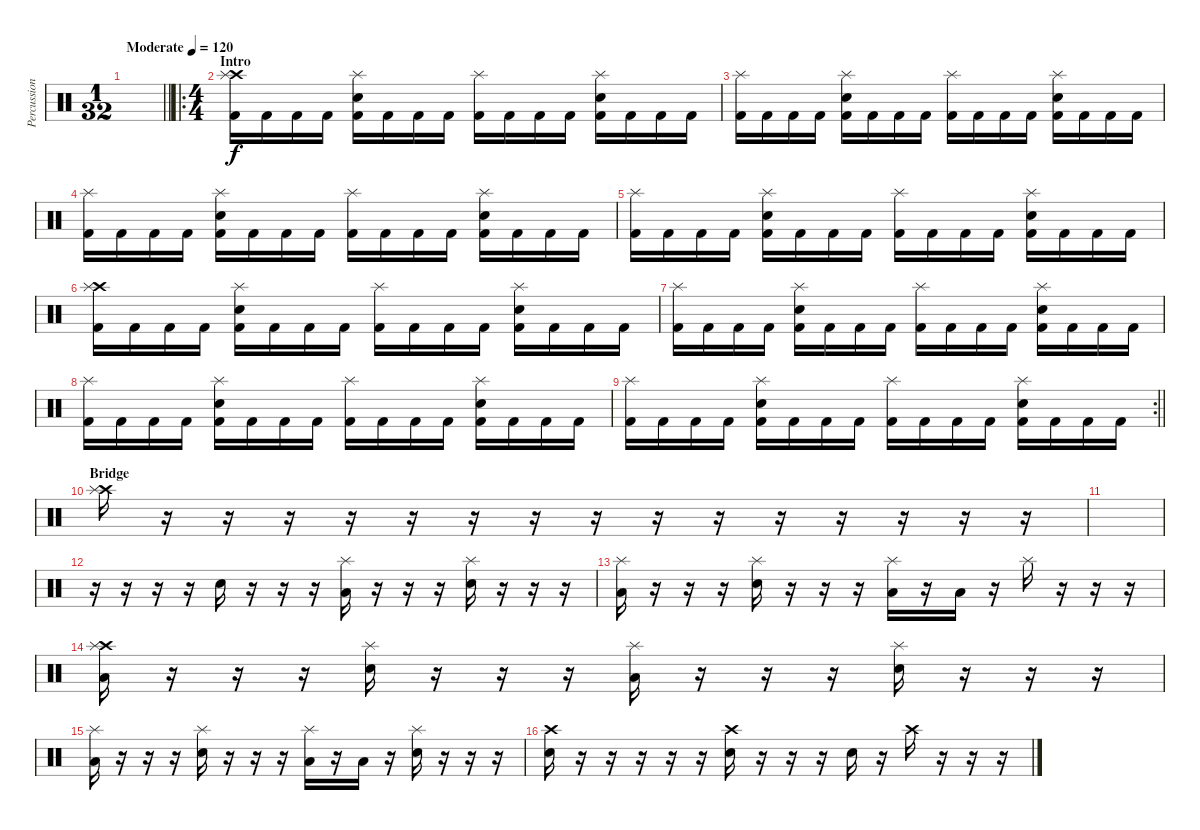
\track ("Percussion" "Percussion") {instrument percussion}
\staff {score}
\articulation defaults
\ts (1 32)
\tempo (120 "Moderate")
\clef neutral
\barLineRight lightlight
\ks c
|
\ro
\ts (4 4)
\section ("" "Intro")
("Crash high (hit)" "Splash (hit)" "Kick (hit) 2").16 "Kick (hit) 2".16 "Kick (hit) 2".16 "Kick (hit) 2".16 ("Splash (hit)" "Electric Snare (hit)" "Kick (hit) 2").16 "Kick (hit) 2".16 "Kick (hit) 2".16 "Kick (hit) 2".16 ("Splash (hit)" "Kick (hit) 2").16 "Kick (hit) 2".16 "Kick (hit) 2".16 "Kick (hit) 2".16 ("Splash (hit)" "Electric Snare (hit)" "Kick (hit) 2").16 "Kick (hit) 2".16 "Kick (hit) 2".16 "Kick (hit) 2".16 |
("Splash (hit)" "Kick (hit) 2").16 "Kick (hit) 2".16 "Kick (hit) 2".16 "Kick (hit) 2".16 ("Splash (hit)" "Electric Snare (hit)" "Kick (hit) 2").16 "Kick (hit) 2".16 "Kick (hit) 2".16 "Kick (hit) 2".16 ("Splash (hit)" "Kick (hit) 2").16 "Kick (hit) 2".16 "Kick (hit) 2".16 "Kick (hit) 2".16 ("Splash (hit)" "Electric Snare (hit)" "Kick (hit) 2").16 "Kick (hit) 2".16 "Kick (hit) 2".16 "Kick (hit) 2".16 |
("Splash (hit)" "Kick (hit) 2").16 "Kick (hit) 2".16 "Kick (hit) 2".16 "Kick (hit) 2".16 ("Splash (hit)" "Electric Snare (hit)" "Kick (hit) 2").16 "Kick (hit) 2".16 "Kick (hit) 2".16 "Kick (hit) 2".16 ("Splash (hit)" "Kick (hit) 2").16 "Kick (hit) 2".16 "Kick (hit) 2".16 "Kick (hit) 2".16 ("Splash (hit)" "Electric Snare (hit)" "Kick (hit) 2").16 "Kick (hit) 2".16 "Kick (hit) 2".16 "Kick (hit) 2".16 |
("Splash (hit)" "Kick (hit) 2").16 "Kick (hit) 2".16 "Kick (hit) 2".16 "Kick (hit) 2".16 ("Splash (hit)" "Electric Snare (hit)" "Kick (hit) 2").16 "Kick (hit) 2".16 "Kick (hit) 2".16 "Kick (hit) 2".16 ("Splash (hit)" "Kick (hit) 2").16 "Kick (hit) 2".16 "Kick (hit) 2".16 "Kick (hit) 2".16 ("Splash (hit)" "Electric Snare (hit)" "Kick (hit) 2").16 "Kick (hit) 2".16 "Kick (hit) 2".16 "Kick (hit) 2".16 |
("Crash high (hit)" "Splash (hit)" "Kick (hit) 2").16 "Kick (hit) 2".16 "Kick (hit) 2".16 "Kick (hit) 2".16 ("Splash (hit)" "Electric Snare (hit)" "Kick (hit) 2").16 "Kick (hit) 2".16 "Kick (hit) 2".16 "Kick (hit) 2".16 ("Splash (hit)" "Kick (hit) 2").16 "Kick (hit) 2".16 "Kick (hit) 2".16 "Kick (hit) 2".16 ("Splash (hit)" "Electric Snare (hit)" "Kick (hit) 2").16 "Kick (hit) 2".16 "Kick (hit) 2".16 "Kick (hit) 2".16 |
("Splash (hit)" "Kick (hit) 2").16 "Kick (hit) 2".16 "Kick (hit) 2".16 "Kick (hit) 2".16 ("Splash (hit)" "Electric Snare (hit)" "Kick (hit) 2").16 "Kick (hit) 2".16 "Kick (hit) 2".16 "Kick (hit) 2".16 ("Splash (hit)" "Kick (hit) 2").16 "Kick (hit) 2".16 "Kick (hit) 2".16 "Kick (hit) 2".16 ("Splash (hit)" "Electric Snare (hit)" "Kick (hit) 2").16 "Kick (hit) 2".16 "Kick (hit) 2".16 "Kick (hit) 2".16 |
("Splash (hit)" "Kick (hit) 2").16 "Kick (hit) 2".16 "Kick (hit) 2".16 "Kick (hit) 2".16 ("Splash (hit)" "Electric Snare (hit)" "Kick (hit) 2").16 "Kick (hit) 2".16 "Kick (hit) 2".16 "Kick (hit) 2".16 ("Splash (hit)" "Kick (hit) 2").16 "Kick (hit) 2".16 "Kick (hit) 2".16 "Kick (hit) 2".16 ("Splash (hit)" "Electric Snare (hit)" "Kick (hit) 2").16 "Kick (hit) 2".16 "Kick (hit) 2".16 "Kick (hit) 2".16 |
\rc 2
\barLineRight lightlight
("Splash (hit)" "Kick (hit) 2").16 "Kick (hit) 2".16 "Kick (hit) 2".16 "Kick (hit) 2".16 ("Splash (hit)" "Electric Snare (hit)" "Kick (hit) 2").16 "Kick (hit) 2".16 "Kick (hit) 2".16 "Kick (hit) 2".16 ("Splash (hit)" "Kick (hit) 2").16 "Kick (hit) 2".16 "Kick (hit) 2".16 "Kick (hit) 2".16 ("Splash (hit)" "Electric Snare (hit)" "Kick (hit) 2").16 "Kick (hit) 2".16 "Kick (hit) 2".16 "Kick (hit) 2".16 |
\section ("" "Bridge")
("Crash high (hit)" "Splash (hit)").16 r.16 r.16 r.16 r.16 r.16 r.16 r.16 r.16 r.16 r.16 r.16 r.16 r.16 r.16 r.16 |
|
r.16 r.16 r.16 r.16 "Electric Snare (hit)".16 r.16 r.16 r.16 ("Splash (hit)" "Low Tom (hit)").16 r.16 r.16 r.16 ("Splash (hit)" "Electric Snare (hit)").16 r.16 r.16 r.16 |
("Splash (hit)" "Low Tom (hit)").16 r.16 r.16 r.16 ("Splash (hit)" "Electric Snare (hit)").16 r.16 r.16 r.16 ("Splash (hit)" "Low Tom (hit)").16 r.16 "Low Tom (hit)".16 r.16 "Splash (hit)".16 r.16 r.16 r.16 |
("Crash high (hit)" "Splash (hit)" "Low Tom (hit)").16 r.16 r.16 r.16 ("Splash (hit)" "Electric Snare (hit)").16 r.16 r.16 r.16 ("Splash (hit)" "Low Tom (hit)").16 r.16 r.16 r.16 ("Splash (hit)" "Electric Snare (hit)").16 r.16 r.16 r.16 |
("Splash (hit)" "Low Tom (hit)").16 r.16 r.16 r.16 ("Splash (hit)" "Electric Snare (hit)").16 r.16 r.16 r.16 ("Splash (hit)" "Low Tom (hit)").16 r.16 "Low Tom (hit)".16 r.16 ("Splash (hit)" "Electric Snare (hit)").16 r.16 r.16 r.16 |
("Crash high (hit)" "Electric Snare (hit)").16 r.16 r.16 r.16 r.16 r.16 ("Crash high (hit)" "Electric Snare (hit)").16 r.16 r.16 r.16 "Electric Snare (hit)".16 r.16 "Crash high (hit)".16 r.16 r.16 r.16
